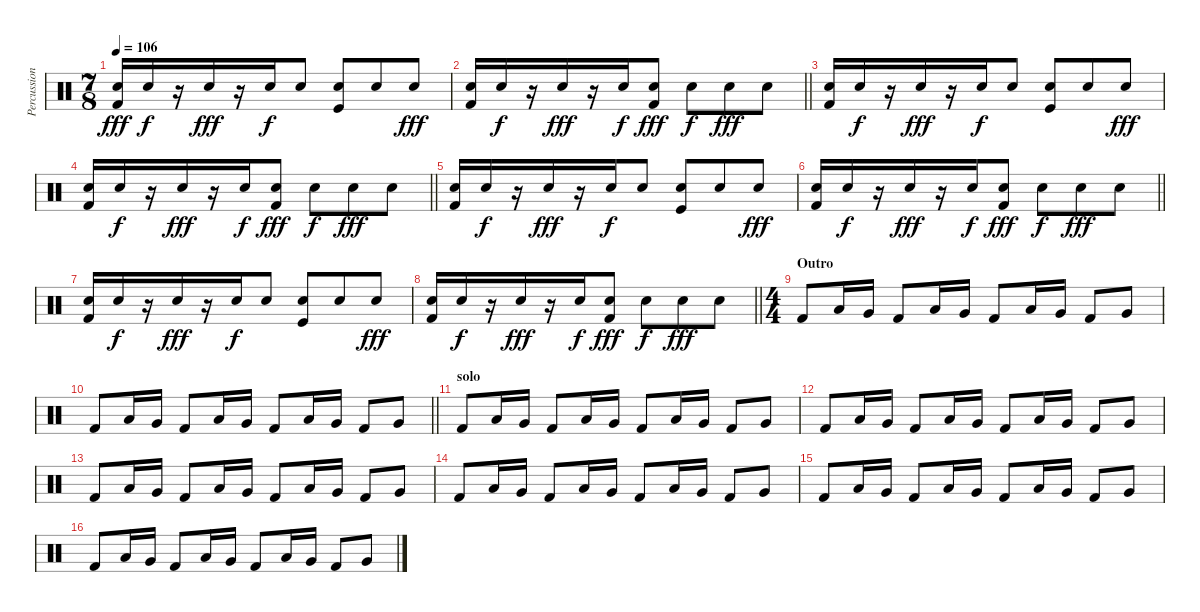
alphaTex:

\track ("Percussion 2" "Percussion") {instrument percussion}
\staff {score}
\articulation defaults
\ts (7 8)
\tempo 106
\clef neutral
\ks c
("Snare (hit) 2" "Kick (hit) 2").16{dy fff} "Snare (hit) 2".16{dy f} r.16 "Electric Snare (hit)".16{dy fff} r.16 "Snare (hit) 2".16{dy f} "Snare (hit) 2".8 ("Snare (hit) 2" "Kick (hit)").8 "Snare (hit) 2".8 "Electric Snare (hit)".8{dy fff} |
\barLineRight lightlight
("Snare (hit) 2" "Kick (hit) 2").16 "Snare (hit) 2".16{dy f} r.16 "Electric Snare (hit)".16{dy fff} r.16 "Snare (hit) 2".16{dy f} ("Snare (hit) 2" "Kick (hit) 2").8{dy fff} "Snare (hit) 2".8{dy f} "Electric Snare (hit)".8{dy fff} "Electric Snare (hit)".8 |
("Snare (hit) 2" "Kick (hit) 2").16 "Snare (hit) 2".16{dy f} r.16 "Electric Snare (hit)".16{dy fff} r.16 "Snare (hit) 2".16{dy f} "Snare (hit) 2".8 ("Snare (hit) 2" "Kick (hit)").8 "Snare (hit) 2".8 "Electric Snare (hit)".8{dy fff} |
\barLineRight lightlight
("Snare (hit) 2" "Kick (hit) 2").16 "Snare (hit) 2".16{dy f} r.16 "Electric Snare (hit)".16{dy fff} r.16 "Snare (hit) 2".16{dy f} ("Snare (hit) 2" "Kick (hit) 2").8{dy fff} "Snare (hit) 2".8{dy f} "Electric Snare (hit)".8{dy fff} "Electric Snare (hit)".8 |
("Snare (hit) 2" "Kick (hit) 2").16 "Snare (hit) 2".16{dy f} r.16 "Electric Snare (hit)".16{dy fff} r.16 "Snare (hit) 2".16{dy f} "Snare (hit) 2".8 ("Snare (hit) 2" "Kick (hit)").8 "Snare (hit) 2".8 "Electric Snare (hit)".8{dy fff} |
\barLineRight lightlight
("Snare (hit) 2" "Kick (hit) 2").16 "Snare (hit) 2".16{dy f} r.16 "Electric Snare (hit)".16{dy fff} r.16 "Snare (hit) 2".16{dy f} ("Snare (hit) 2" "Kick (hit) 2").8{dy fff} "Snare (hit) 2".8{dy f} "Electric Snare (hit)".8{dy fff} "Electric Snare (hit)".8 |
("Snare (hit) 2" "Kick (hit) 2").16 "Snare (hit) 2".16{dy f} r.16 "Electric Snare (hit)".16{dy fff} r.16 "Snare (hit) 2".16{dy f} "Snare (hit) 2".8 ("Snare (hit) 2" "Kick (hit)").8 "Snare (hit) 2".8 "Electric Snare (hit)".8{dy fff} |
\barLineRight lightlight
("Snare (hit) 2" "Kick (hit) 2").16 "Snare (hit) 2".16{dy f} r.16 "Electric Snare (hit)".16{dy fff} r.16 "Snare (hit) 2".16{dy f} ("Snare (hit) 2" "Kick (hit) 2").8{dy fff} "Snare (hit) 2".8{dy f} "Electric Snare (hit)".8{dy fff} "Electric Snare (hit)".8 |
\ts (4 4)
\section ("" "Outro")
"Kick (hit) 2".8 "Low Floor Tom (hit)".16 "Very Low Tom (hit)".16 "Kick (hit) 2".8 "Low Floor Tom (hit)".16 "Very Low Tom (hit)".16 "Kick (hit) 2".8 "Low Floor Tom (hit)".16 "Very Low Tom (hit)".16 "Kick (hit) 2".8 "Very Low Tom (hit)".8 |
\barLineRight lightlight "Kick (hit) 2".8 "Low Floor Tom (hit)".16 "Very Low Tom (hit)".16 "Kick (hit) 2".8 "Low Floor Tom (hit)".16 "Very Low Tom (hit)".16 "Kick (hit) 2".8 "Low Floor Tom (hit)".16 "Very Low Tom (hit)".16 "Kick (hit) 2".8 "Very Low Tom (hit)".8
|
\section ("" "solo")
"Kick (hit) 2".8 "Low Floor Tom (hit)".16 "Very Low Tom (hit)".16 "Kick (hit) 2".8 "Low Floor Tom (hit)".16 "Very Low Tom (hit)".16 "Kick (hit) 2".8 "Low Floor Tom (hit)".16 "Very Low Tom (hit)".16 "Kick (hit) 2".8 "Very Low Tom (hit)".8 |
"Kick (hit) 2".8 "Low Floor Tom (hit)".16 "Very Low Tom (hit)".16 "Kick (hit) 2".8 "Low Floor Tom (hit)".16 "Very Low Tom (hit)".16 "Kick (hit) 2".8 "Low Floor Tom (hit)".16 "Very Low Tom (hit)".16 "Kick (hit) 2".8 "Very Low Tom (hit)".8 |
"Kick (hit) 2".8 "Low Floor Tom (hit)".16 "Very Low Tom (hit)".16 "Kick (hit) 2".8 "Low Floor Tom (hit)".16 "Very Low Tom (hit)".16 "Kick (hit) 2".8 "Low Floor Tom (hit)".16 "Very Low Tom (hit)".16 "Kick (hit) 2".8 "Very Low Tom (hit)".8 |
"Kick (hit) 2".8 "Low Floor Tom (hit)".16 "Very Low Tom (hit)".16 "Kick (hit) 2".8 "Low Floor Tom (hit)".16 "Very Low Tom (hit)".16 "Kick (hit) 2".8 "Low Floor Tom (hit)".16 "Very Low Tom (hit)".16 "Kick (hit) 2".8 "Very Low Tom (hit)".8 |
"Kick (hit) 2".8 "Low Floor Tom (hit)".16 "Very Low Tom (hit)".16 "Kick (hit) 2".8 "Low Floor Tom (hit)".16 "Very Low Tom (hit)".16 "Kick (hit) 2".8 "Low Floor Tom (hit)".16 "Very Low Tom (hit)".16 "Kick (hit) 2".8 "Very Low Tom (hit)".8 |
"Kick (hit) 2".8 "Low Floor Tom (hit)".16 "Very Low Tom (hit)".16 "Kick (hit) 2".8 "Low Floor Tom (hit)".16 "Very Low Tom (hit)".16 "Kick (hit) 2".8 "Low Floor Tom (hit)".16 "Very Low Tom (hit)".16 "Kick (hit) 2".8 "Very Low Tom (hit)".8
